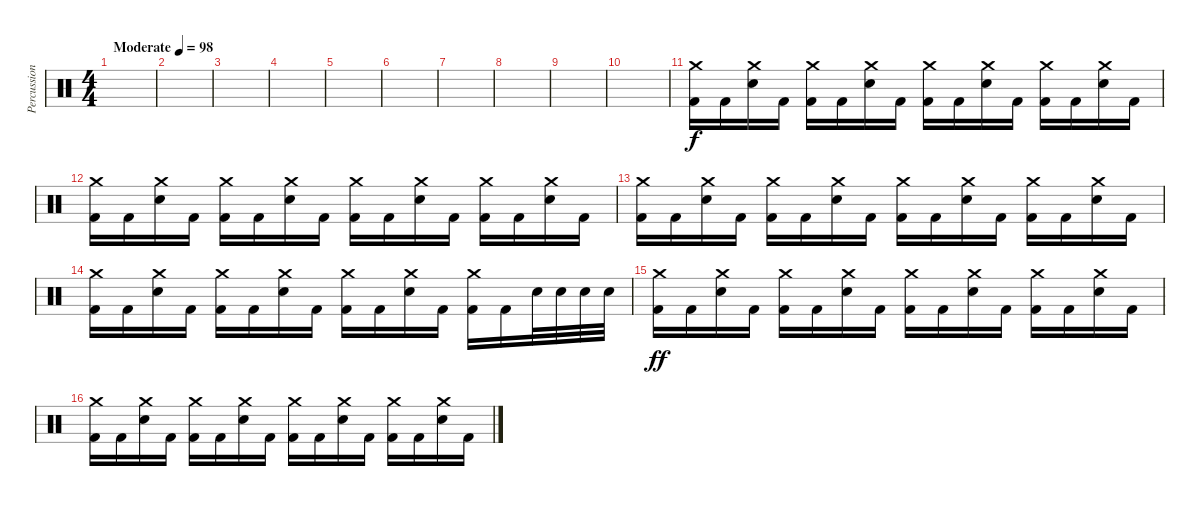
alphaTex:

\track ("Percussion" "Percussion") {instrument percussion}
\staff {score}
\articulation defaults
\ts (4 4)
\tempo (98 "Moderate")
\clef neutral
\ks c
|
|
|
|
|
|
|
|
|
|
("Crash medium (hit)" "Kick (hit) 2").16 "Kick (hit) 2".16 ("Crash medium (hit)" "Electric Snare (hit)").16 "Kick (hit) 2".16 ("Crash medium (hit)" "Kick (hit) 2").16 "Kick (hit) 2".16 ("Crash medium (hit)" "Electric Snare (hit)").16 "Kick (hit) 2".16 ("Crash medium (hit)" "Kick (hit) 2").16 "Kick (hit) 2".16 ("Crash medium (hit)" "Electric Snare (hit)").16 "Kick (hit) 2".16 ("Crash medium (hit)" "Kick (hit) 2").16 "Kick (hit) 2".16 ("Crash medium (hit)" "Electric Snare (hit)").16 "Kick (hit) 2".16 |
("Crash medium (hit)" "Kick (hit) 2").16 "Kick (hit) 2".16 ("Crash medium (hit)" "Electric Snare (hit)").16 "Kick (hit) 2".16 ("Crash medium (hit)" "Kick (hit) 2").16 "Kick (hit) 2".16 ("Crash medium (hit)" "Electric Snare (hit)").16 "Kick (hit) 2".16 ("Crash medium (hit)" "Kick (hit) 2").16 "Kick (hit) 2".16 ("Crash medium (hit)" "Electric Snare (hit)").16 "Kick (hit) 2".16 ("Crash medium (hit)" "Kick (hit) 2").16 "Kick (hit) 2".16 ("Crash medium (hit)" "Electric Snare (hit)").16 "Kick (hit) 2".16 |
("Crash medium (hit)" "Kick (hit) 2").16 "Kick (hit) 2".16 ("Crash medium (hit)" "Electric Snare (hit)").16 "Kick (hit) 2".16 ("Crash medium (hit)" "Kick (hit) 2").16 "Kick (hit) 2".16 ("Crash medium (hit)" "Electric Snare (hit)").16 "Kick (hit) 2".16 ("Crash medium (hit)" "Kick (hit) 2").16 "Kick (hit) 2".16 ("Crash medium (hit)" "Electric Snare (hit)").16 "Kick (hit) 2".16 ("Crash medium (hit)" "Kick (hit) 2").16 "Kick (hit) 2".16 ("Crash medium (hit)" "Electric Snare (hit)").16 "Kick (hit) 2".16 |
("Crash medium (hit)" "Kick (hit) 2").16 "Kick (hit) 2".16 ("Crash medium (hit)" "Electric Snare (hit)").16 "Kick (hit) 2".16 ("Crash medium (hit)" "Kick (hit) 2").16 "Kick (hit) 2".16 ("Crash medium (hit)" "Electric Snare (hit)").16 "Kick (hit) 2".16 ("Crash medium (hit)" "Kick (hit) 2").16 "Kick (hit) 2".16 ("Crash medium (hit)" "Electric Snare (hit)").16 "Kick (hit) 2".16 ("Crash medium (hit)" "Kick (hit) 2").16 "Kick (hit) 2".16 "Electric Snare (hit)".32{dy f} "Electric Snare (hit)".32 "Electric Snare (hit)".32 "Electric Snare (hit)".32 |
("Crash medium (hit)" "Kick (hit) 2").16{dy ff} "Kick (hit) 2".16 ("Crash medium (hit)" "Electric Snare (hit)").16 "Kick (hit) 2".16 ("Crash medium (hit)" "Kick (hit) 2").16 "Kick (hit) 2".16 ("Crash medium (hit)" "Electric Snare (hit)").16 "Kick (hit) 2".16 ("Crash medium (hit)" "Kick (hit) 2").16 "Kick (hit) 2".16 ("Crash medium (hit)" "Electric Snare (hit)").16 "Kick (hit) 2".16 ("Crash medium (hit)" "Kick (hit) 2").16 "Kick (hit) 2".16 ("Crash medium (hit)" "Electric Snare (hit)").16 "Kick (hit) 2".16 |
("Crash medium (hit)" "Kick (hit) 2").16 "Kick (hit) 2".16 ("Crash medium (hit)" "Electric Snare (hit)").16 "Kick (hit) 2".16 ("Crash medium (hit)" "Kick (hit) 2").16 "Kick (hit) 2".16 ("Crash medium (hit)" "Electric Snare (hit)").16 "Kick (hit) 2".16 ("Crash medium (hit)" "Kick (hit) 2").16 "Kick (hit) 2".16 ("Crash medium (hit)" "Electric Snare (hit)").16 "Kick (hit) 2".16 ("Crash medium (hit)" "Kick (hit) 2").16 "Kick (hit) 2".16 ("Crash medium (hit)" "Electric Snare (hit)").16 "Kick (hit) 2".16
